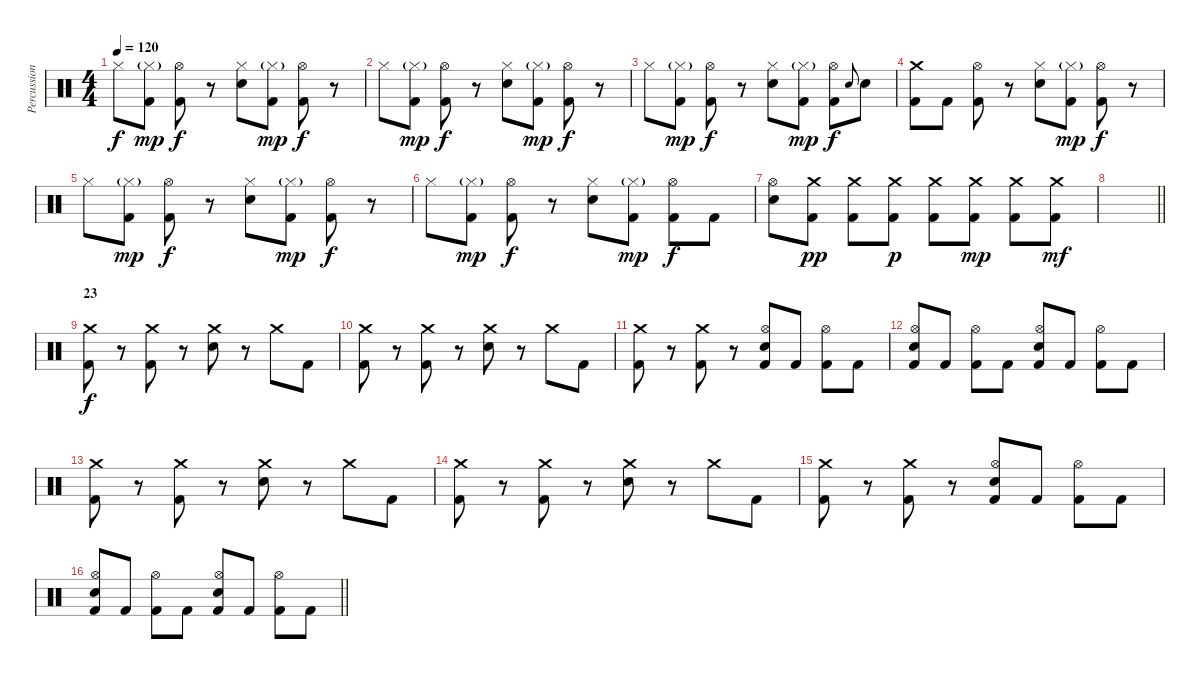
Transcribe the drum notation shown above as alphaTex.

\track ("Percussion" "Percussion") {instrument percussion}
\staff {score}
\articulation defaults
\ts (4 4)
\tempo 120
\clef neutral
\ks c "Hi-Hat (closed)".8{dy f}
("Hi-Hat (closed)"{g} "Kick (hit) 2").8{dy mp} ("Hi-Hat (open)" "Kick (hit) 2").8{dy f} r.8 ("Hi-Hat (closed)" "Snare (hit) 2").8 ("Hi-Hat (closed)"{g} "Kick (hit) 2").8{dy mp} ("Hi-Hat (open)" "Kick (hit) 2").8{dy f} r.8 |
"Hi-Hat (closed)".8 ("Hi-Hat (closed)"{g} "Kick (hit) 2").8{dy mp} ("Hi-Hat (open)" "Kick (hit) 2").8{dy f} r.8 ("Hi-Hat (closed)" "Snare (hit) 2").8 ("Hi-Hat (closed)"{g} "Kick (hit) 2").8{dy mp} ("Hi-Hat (open)" "Kick (hit) 2").8{dy f} r.8 |
"Hi-Hat (closed)".8 ("Hi-Hat (closed)"{g} "Kick (hit) 2").8{dy mp} ("Hi-Hat (open)" "Kick (hit) 2").8{dy f} r.8 ("Hi-Hat (closed)" "Snare (hit) 2").8 ("Hi-Hat (closed)"{g} "Kick (hit) 2").8{dy mp} ("Hi-Hat (open)" "Kick (hit) 2").8{dy f} "Snare (hit) 2".8{gr onbeat} "Snare (hit) 2".8 |
("Crash medium (hit)" "Kick (hit) 2").8 "Kick (hit) 2".8 ("Hi-Hat (open)" "Kick (hit) 2").8 r.8 ("Hi-Hat (closed)" "Snare (hit) 2").8 ("Hi-Hat (closed)"{g} "Kick (hit) 2").8{dy mp} ("Hi-Hat (open)" "Kick (hit) 2").8{dy f} r.8 |
"Hi-Hat (closed)".8 ("Hi-Hat (closed)"{g} "Kick (hit) 2").8{dy mp} ("Hi-Hat (open)" "Kick (hit) 2").8{dy f} r.8 ("Hi-Hat (closed)" "Snare (hit) 2").8 ("Hi-Hat (closed)"{g} "Kick (hit) 2").8{dy mp} ("Hi-Hat (open)" "Kick (hit) 2").8{dy f} r.8 |
"Hi-Hat (closed)".8 ("Hi-Hat (closed)"{g} "Kick (hit) 2").8{dy mp} ("Hi-Hat (open)" "Kick (hit) 2").8{dy f} r.8 ("Hi-Hat (closed)" "Snare (hit) 2").8 ("Hi-Hat (closed)"{g} "Kick (hit) 2").8{dy mp} ("Hi-Hat (open)" "Kick (hit) 2").8{dy f} "Kick (hit) 2".8 |
("Hi-Hat (open)" "Snare (hit) 2").8 ("Crash medium (hit)" "Kick (hit) 2").8{dy pp} ("Crash medium (hit)" "Kick (hit) 2").8 ("Crash medium (hit)" "Kick (hit) 2").8{dy p} ("Crash medium (hit)" "Kick (hit) 2").8 ("Crash medium (hit)" "Kick (hit) 2").8{dy mp} ("Crash medium (hit)" "Kick (hit) 2").8 ("Crash medium (hit)" "Kick (hit) 2").8{dy mf} |
\barLineRight lightlight
|
\section ("" "23")
("Crash medium (hit)" "Kick (hit) 2").8{dy f} r.8 ("Crash medium (hit)" "Kick (hit) 2").8 r.8 ("Crash medium (hit)" "Snare (hit) 2").8 r.8 "Crash medium (hit)".8 "Kick (hit) 2".8 |
("Crash medium (hit)" "Kick (hit) 2").8 r.8 ("Crash medium (hit)" "Kick (hit) 2").8 r.8 ("Crash medium (hit)" "Snare (hit) 2").8 r.8 "Crash medium (hit)".8 "Kick (hit) 2".8 |
("Crash medium (hit)" "Kick (hit) 2").8 r.8 ("Crash medium (hit)" "Kick (hit) 2").8 r.8 ("Hi-Hat (open)" "Snare (hit) 2" "Kick (hit) 2").8 "Kick (hit) 2".8 ("Hi-Hat (open)" "Kick (hit) 2").8 "Kick (hit) 2".8 |
("Hi-Hat (open)" "Snare (hit) 2" "Kick (hit) 2").8 "Kick (hit) 2".8 ("Hi-Hat (open)" "Kick (hit) 2").8 "Kick (hit) 2".8 ("Hi-Hat (open)" "Snare (hit) 2" "Kick (hit) 2").8 "Kick (hit) 2".8 ("Hi-Hat (open)" "Kick (hit) 2").8 "Kick (hit) 2".8 |
("Crash medium (hit)" "Kick (hit) 2").8 r.8 ("Crash medium (hit)" "Kick (hit) 2").8 r.8 ("Crash medium (hit)" "Snare (hit) 2").8 r.8 "Crash medium (hit)".8 "Kick (hit) 2".8 |
("Crash medium (hit)" "Kick (hit) 2").8 r.8 ("Crash medium (hit)" "Kick (hit) 2").8 r.8 ("Crash medium (hit)" "Snare (hit) 2").8 r.8 "Crash medium (hit)".8 "Kick (hit) 2".8 |
("Crash medium (hit)" "Kick (hit) 2").8 r.8 ("Crash medium (hit)" "Kick (hit) 2").8 r.8 ("Hi-Hat (open)" "Snare (hit) 2" "Kick (hit) 2").8 "Kick (hit) 2".8 ("Hi-Hat (open)" "Kick (hit) 2").8 "Kick (hit) 2".8 |
\barLineRight lightlight
("Hi-Hat (open)" "Snare (hit) 2" "Kick (hit) 2").8 "Kick (hit) 2".8 ("Hi-Hat (open)" "Kick (hit) 2").8 "Kick (hit) 2".8 ("Hi-Hat (open)" "Snare (hit) 2" "Kick (hit) 2").8 "Kick (hit) 2".8 ("Hi-Hat (open)" "Kick (hit) 2").8 "Kick (hit) 2".8
